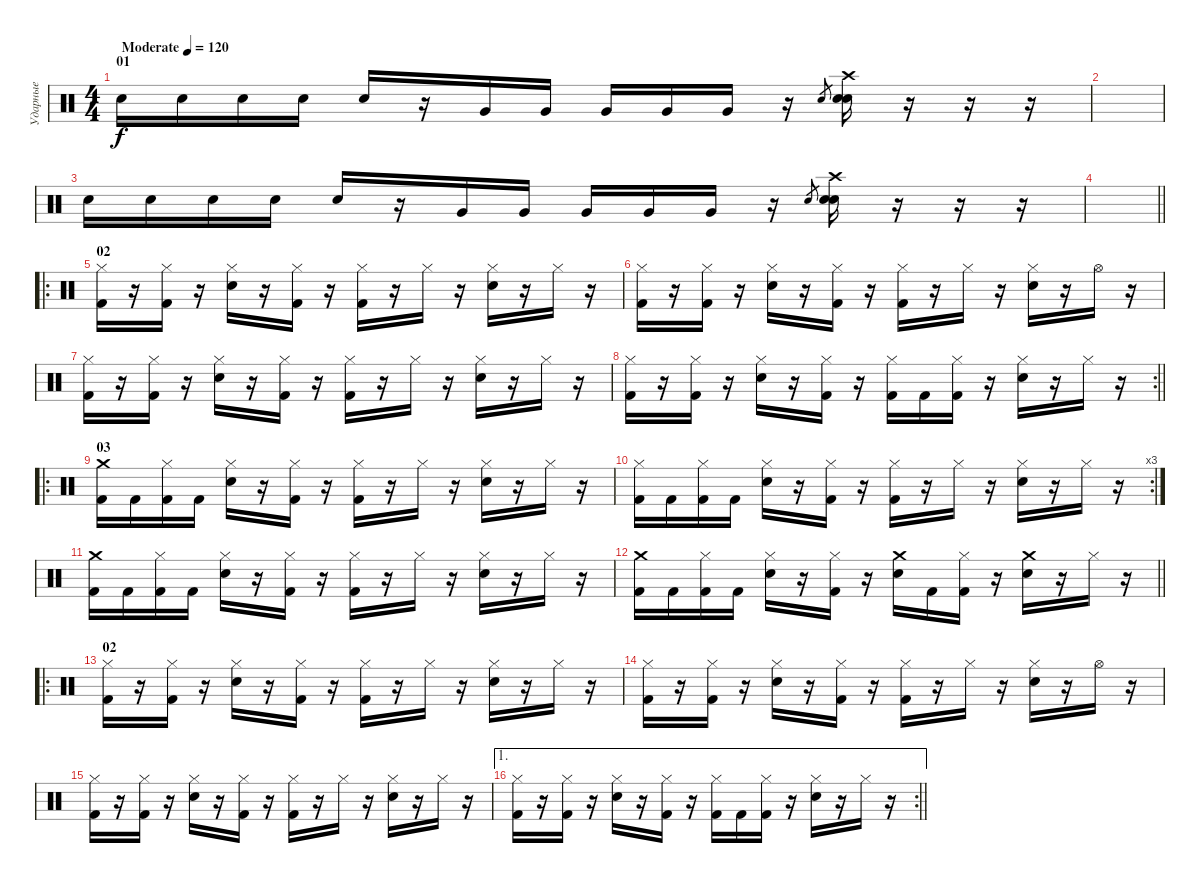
\track ("Ударные" "Ударные") {instrument percussion}
\staff {score}
\articulation defaults
\ts (4 4)
\section ("" "01")
\tempo (120 "Moderate")
\clef neutral
\ks c "Electric Snare (hit)".16{dy f} "Electric Snare (hit)".16 "Electric Snare (hit)".16 "Electric Snare (hit)".16 "Electric Snare (hit)".16
r.16 "Very Low Tom (hit)".16 "Very Low Tom (hit)".16 "Very Low Tom (hit)".16 "Very Low Tom (hit)".16 "Very Low Tom (hit)".16 r.16 "Electric Snare (hit)".8{gr} ("Crash high (hit)" "Electric Snare (hit)" "Electric Snare (hit)").16 r.16 r.16 r.16 |
|
"Electric Snare (hit)".16 "Electric Snare (hit)".16 "Electric Snare (hit)".16 "Electric Snare (hit)".16 "Electric Snare (hit)".16 r.16 "Very Low Tom (hit)".16 "Very Low Tom (hit)".16 "Very Low Tom (hit)".16 "Very Low Tom (hit)".16 "Very Low Tom (hit)".16 r.16 "Electric Snare (hit)".8{gr} ("Crash high (hit)" "Electric Snare (hit)" "Electric Snare (hit)").16 r.16 r.16 r.16 |
\barLineRight lightlight
|
\ro
\section ("" "02")
("Hi-Hat (closed)" "Kick (hit) 2").16 r.16 ("Hi-Hat (closed)" "Kick (hit) 2").16 r.16 ("Hi-Hat (closed)" "Electric Snare (hit)").16 r.16 ("Hi-Hat (closed)" "Kick (hit) 2").16 r.16 ("Hi-Hat (closed)" "Kick (hit) 2").16 r.16 "Hi-Hat (closed)".16 r.16 ("Hi-Hat (closed)" "Electric Snare (hit)").16 r.16 "Hi-Hat (closed)".16 r.16 |
("Hi-Hat (closed)" "Kick (hit) 2").16 r.16 ("Hi-Hat (closed)" "Kick (hit) 2").16 r.16 ("Hi-Hat (closed)" "Electric Snare (hit)").16 r.16 ("Hi-Hat (closed)" "Kick (hit) 2").16 r.16 ("Hi-Hat (closed)" "Kick (hit) 2").16 r.16 "Hi-Hat (closed)".16 r.16 ("Hi-Hat (closed)" "Electric Snare (hit)").16 r.16 "Hi-Hat (open)".16 r.16 |
("Hi-Hat (closed)" "Kick (hit) 2").16 r.16 ("Hi-Hat (closed)" "Kick (hit) 2").16 r.16 ("Hi-Hat (closed)" "Electric Snare (hit)").16 r.16 ("Hi-Hat (closed)" "Kick (hit) 2").16 r.16 ("Hi-Hat (closed)" "Kick (hit) 2").16 r.16 "Hi-Hat (closed)".16 r.16 ("Hi-Hat (closed)" "Electric Snare (hit)").16 r.16 "Hi-Hat (closed)".16 r.16 |
\rc 2
\barLineRight lightlight
("Hi-Hat (closed)" "Kick (hit) 2").16 r.16 ("Hi-Hat (closed)" "Kick (hit) 2").16 r.16 ("Hi-Hat (closed)" "Electric Snare (hit)").16 r.16 ("Hi-Hat (closed)" "Kick (hit) 2").16 r.16 ("Hi-Hat (closed)" "Kick (hit) 2").16 "Kick (hit) 2".16 ("Hi-Hat (closed)" "Kick (hit) 2").16 r.16 ("Hi-Hat (closed)" "Electric Snare (hit)").16 r.16 "Hi-Hat (closed)".16 r.16 |
\ro
\section ("" "03")
("Crash medium (hit)" "Kick (hit) 2").16 "Kick (hit) 2".16 ("Hi-Hat (closed)" "Kick (hit) 2").16 "Kick (hit) 2".16 ("Hi-Hat (closed)" "Electric Snare (hit)").16 r.16 ("Hi-Hat (closed)" "Kick (hit) 2").16 r.16 ("Hi-Hat (closed)" "Kick (hit) 2").16 r.16 "Hi-Hat (closed)".16 r.16 ("Hi-Hat (closed)" "Electric Snare (hit)").16 r.16 "Hi-Hat (closed)".16 r.16 |
\rc 3
("Hi-Hat (closed)" "Kick (hit) 2").16 "Kick (hit) 2".16 ("Hi-Hat (closed)" "Kick (hit) 2").16 "Kick (hit) 2".16 ("Hi-Hat (closed)" "Electric Snare (hit)").16 r.16 ("Hi-Hat (closed)" "Kick (hit) 2").16 r.16 ("Hi-Hat (closed)" "Kick (hit) 2").16 r.16 "Hi-Hat (closed)".16 r.16 ("Hi-Hat (closed)" "Electric Snare (hit)").16 r.16 "Hi-Hat (closed)".16 r.16 |
("Crash medium (hit)" "Kick (hit) 2").16 "Kick (hit) 2".16 ("Hi-Hat (closed)" "Kick (hit) 2").16 "Kick (hit) 2".16 ("Hi-Hat (closed)" "Electric Snare (hit)").16 r.16 ("Hi-Hat (closed)" "Kick (hit) 2").16 r.16 ("Hi-Hat (closed)" "Kick (hit) 2").16 r.16 "Hi-Hat (closed)".16 r.16 ("Hi-Hat (closed)" "Electric Snare (hit)").16 r.16 "Hi-Hat (closed)".16 r.16 |
\barLineRight lightlight
("Crash medium (hit)" "Kick (hit) 2").16 "Kick (hit) 2".16 ("Hi-Hat (closed)" "Kick (hit) 2").16 "Kick (hit) 2".16 ("Hi-Hat (closed)" "Electric Snare (hit)").16 r.16 ("Hi-Hat (closed)" "Kick (hit) 2").16 r.16 ("Crash medium (hit)" "Electric Snare (hit)").16 "Kick (hit) 2".16 ("Hi-Hat (closed)" "Kick (hit) 2").16 r.16 ("Crash medium (hit)" "Electric Snare (hit)").16 r.16 "Hi-Hat (closed)".16 r.16 |
\ro
\section ("" "02")
("Hi-Hat (closed)" "Kick (hit) 2").16 r.16 ("Hi-Hat (closed)" "Kick (hit) 2").16 r.16 ("Hi-Hat (closed)" "Electric Snare (hit)").16 r.16 ("Hi-Hat (closed)" "Kick (hit) 2").16 r.16 ("Hi-Hat (closed)" "Kick (hit) 2").16 r.16 "Hi-Hat (closed)".16 r.16 ("Hi-Hat (closed)" "Electric Snare (hit)").16 r.16 "Hi-Hat (closed)".16 r.16 |
("Hi-Hat (closed)" "Kick (hit) 2").16 r.16 ("Hi-Hat (closed)" "Kick (hit) 2").16 r.16 ("Hi-Hat (closed)" "Electric Snare (hit)").16 r.16 ("Hi-Hat (closed)" "Kick (hit) 2").16 r.16 ("Hi-Hat (closed)" "Kick (hit) 2").16 r.16 "Hi-Hat (closed)".16 r.16 ("Hi-Hat (closed)" "Electric Snare (hit)").16 r.16 "Hi-Hat (open)".16 r.16 |
("Hi-Hat (closed)" "Kick (hit) 2").16 r.16 ("Hi-Hat (closed)" "Kick (hit) 2").16 r.16 ("Hi-Hat (closed)" "Electric Snare (hit)").16 r.16 ("Hi-Hat (closed)" "Kick (hit) 2").16 r.16 ("Hi-Hat (closed)" "Kick (hit) 2").16 r.16 "Hi-Hat (closed)".16 r.16 ("Hi-Hat (closed)" "Electric Snare (hit)").16 r.16 "Hi-Hat (closed)".16 r.16 |
\ae 1
\rc 2
\barLineRight lightlight
("Hi-Hat (closed)" "Kick (hit) 2").16 r.16 ("Hi-Hat (closed)" "Kick (hit) 2").16 r.16 ("Hi-Hat (closed)" "Electric Snare (hit)").16 r.16 ("Hi-Hat (closed)" "Kick (hit) 2").16 r.16 ("Hi-Hat (closed)" "Kick (hit) 2").16 "Kick (hit) 2".16 ("Hi-Hat (closed)" "Kick (hit) 2").16 r.16 ("Hi-Hat (closed)" "Electric Snare (hit)").16 r.16 "Hi-Hat (closed)".16 r.16
